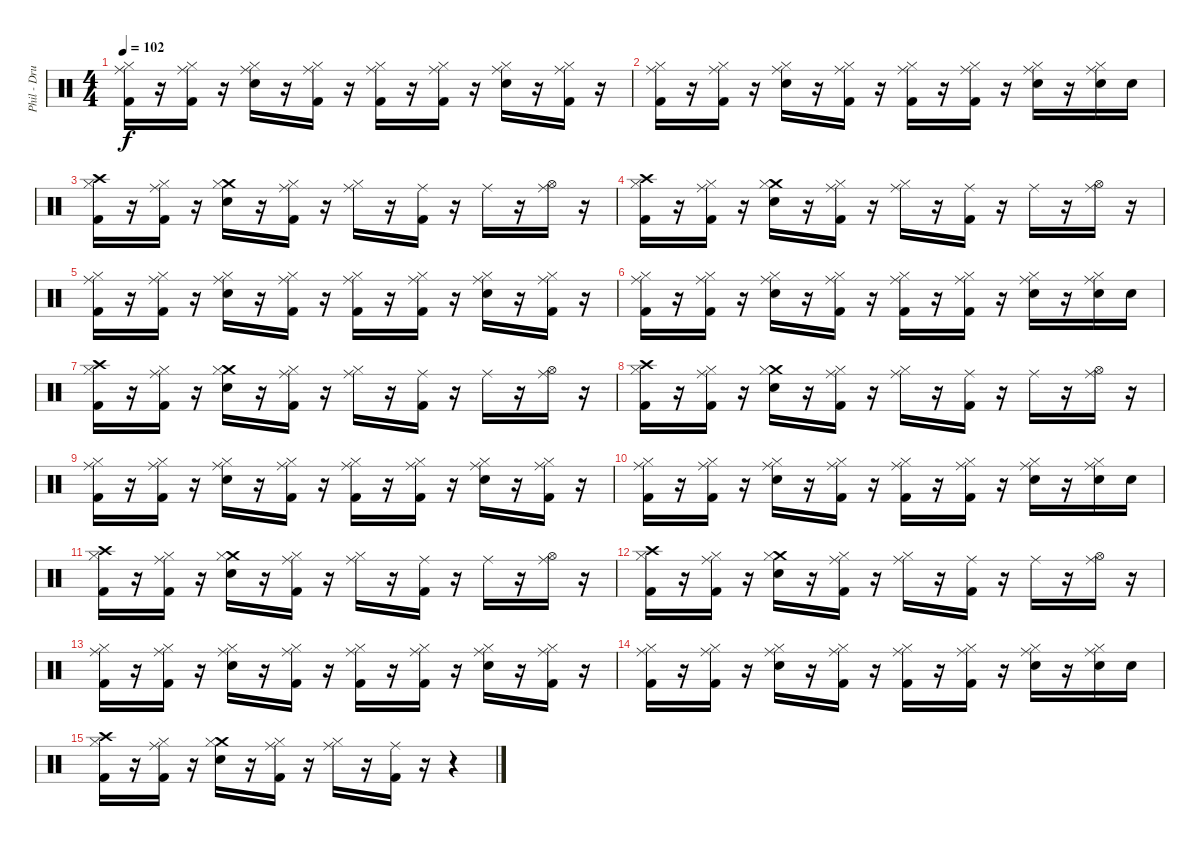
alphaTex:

\track ("Phil - Drums" "Phil - Dru") {instrument percussion}
\staff {score}
\articulation defaults
\ts (4 4)
\tempo 102
\clef neutral
\ks c
("Ride (middle)" "Kick (hit) 2" "Hi-Hat (closed)").16{dy f} r.16 ("Ride (middle)" "Kick (hit) 2" "Hi-Hat (closed)").16 r.16 ("Ride (middle)" "Electric Snare (hit)" "Hi-Hat (closed)").16 r.16 ("Ride (middle)" "Kick (hit) 2" "Hi-Hat (closed)").16 r.16 ("Ride (middle)" "Kick (hit) 2" "Hi-Hat (closed)").16 r.16 ("Ride (middle)" "Kick (hit) 2" "Hi-Hat (closed)").16 r.16 ("Ride (middle)" "Electric Snare (hit)" "Hi-Hat (closed)").16 r.16 ("Ride (middle)" "Kick (hit) 2" "Hi-Hat (closed)").16 r.16 |
("Ride (middle)" "Kick (hit) 2" "Hi-Hat (closed)").16 r.16 ("Ride (middle)" "Kick (hit) 2" "Hi-Hat (closed)").16 r.16 ("Ride (middle)" "Electric Snare (hit)" "Hi-Hat (closed)").16 r.16 ("Ride (middle)" "Kick (hit) 2" "Hi-Hat (closed)").16 r.16 ("Ride (middle)" "Kick (hit) 2" "Hi-Hat (closed)").16 r.16 ("Ride (middle)" "Kick (hit) 2" "Hi-Hat (closed)").16 r.16 ("Ride (middle)" "Electric Snare (hit)" "Hi-Hat (closed)").16 r.16 ("Ride (middle)" "Electric Snare (hit)" "Hi-Hat (closed)").16 "Electric Snare (hit)".16 |
("Crash high (hit)" "Kick (hit) 2" "Hi-Hat (closed)").16 r.16 ("Ride (middle)" "Kick (hit) 2" "Hi-Hat (closed)").16 r.16 ("Crash medium (hit)" "Electric Snare (hit)" "Hi-Hat (closed)").16 r.16 ("Ride (middle)" "Kick (hit) 2" "Hi-Hat (closed)").16 r.16 ("Ride (middle)" "Hi-Hat (closed)").16 r.16 ("Ride (middle)" "Kick (hit) 2").16 r.16 "Ride (middle)".16 r.16 ("Ride (middle)" "Hi-Hat (open)").16 r.16 |
("Crash high (hit)" "Kick (hit) 2" "Hi-Hat (closed)").16 r.16 ("Ride (middle)" "Kick (hit) 2" "Hi-Hat (closed)").16 r.16 ("Crash medium (hit)" "Electric Snare (hit)" "Hi-Hat (closed)").16 r.16 ("Ride (middle)" "Kick (hit) 2" "Hi-Hat (closed)").16 r.16 ("Ride (middle)" "Hi-Hat (closed)").16 r.16 ("Ride (middle)" "Kick (hit) 2").16 r.16 "Ride (middle)".16 r.16 ("Ride (middle)" "Hi-Hat (open)").16 r.16 |
("Ride (middle)" "Kick (hit) 2" "Hi-Hat (closed)").16 r.16 ("Ride (middle)" "Kick (hit) 2" "Hi-Hat (closed)").16 r.16 ("Ride (middle)" "Electric Snare (hit)" "Hi-Hat (closed)").16 r.16 ("Ride (middle)" "Kick (hit) 2" "Hi-Hat (closed)").16 r.16 ("Ride (middle)" "Kick (hit) 2" "Hi-Hat (closed)").16 r.16 ("Ride (middle)" "Kick (hit) 2" "Hi-Hat (closed)").16 r.16 ("Ride (middle)" "Electric Snare (hit)" "Hi-Hat (closed)").16 r.16 ("Ride (middle)" "Kick (hit) 2" "Hi-Hat (closed)").16 r.16 |
("Ride (middle)" "Kick (hit) 2" "Hi-Hat (closed)").16 r.16 ("Ride (middle)" "Kick (hit) 2" "Hi-Hat (closed)").16 r.16 ("Ride (middle)" "Electric Snare (hit)" "Hi-Hat (closed)").16 r.16 ("Ride (middle)" "Kick (hit) 2" "Hi-Hat (closed)").16 r.16 ("Ride (middle)" "Kick (hit) 2" "Hi-Hat (closed)").16 r.16 ("Ride (middle)" "Kick (hit) 2" "Hi-Hat (closed)").16 r.16 ("Ride (middle)" "Electric Snare (hit)" "Hi-Hat (closed)").16 r.16 ("Ride (middle)" "Electric Snare (hit)" "Hi-Hat (closed)").16 "Electric Snare (hit)".16 |
("Crash high (hit)" "Kick (hit) 2" "Hi-Hat (closed)").16 r.16 ("Ride (middle)" "Kick (hit) 2" "Hi-Hat (closed)").16 r.16 ("Crash medium (hit)" "Electric Snare (hit)" "Hi-Hat (closed)").16 r.16 ("Ride (middle)" "Kick (hit) 2" "Hi-Hat (closed)").16 r.16 ("Ride (middle)" "Hi-Hat (closed)").16 r.16 ("Ride (middle)" "Kick (hit) 2").16 r.16 "Ride (middle)".16 r.16 ("Ride (middle)" "Hi-Hat (open)").16 r.16 |
("Crash high (hit)" "Kick (hit) 2" "Hi-Hat (closed)").16 r.16 ("Ride (middle)" "Kick (hit) 2" "Hi-Hat (closed)").16 r.16 ("Crash medium (hit)" "Electric Snare (hit)" "Hi-Hat (closed)").16 r.16 ("Ride (middle)" "Kick (hit) 2" "Hi-Hat (closed)").16 r.16 ("Ride (middle)" "Hi-Hat (closed)").16 r.16 ("Ride (middle)" "Kick (hit) 2").16 r.16 "Ride (middle)".16 r.16 ("Ride (middle)" "Hi-Hat (open)").16 r.16 |
("Ride (middle)" "Kick (hit) 2" "Hi-Hat (closed)").16 r.16 ("Ride (middle)" "Kick (hit) 2" "Hi-Hat (closed)").16 r.16 ("Ride (middle)" "Electric Snare (hit)" "Hi-Hat (closed)").16 r.16 ("Ride (middle)" "Kick (hit) 2" "Hi-Hat (closed)").16 r.16 ("Ride (middle)" "Kick (hit) 2" "Hi-Hat (closed)").16 r.16 ("Ride (middle)" "Kick (hit) 2" "Hi-Hat (closed)").16 r.16 ("Ride (middle)" "Electric Snare (hit)" "Hi-Hat (closed)").16 r.16 ("Ride (middle)" "Kick (hit) 2" "Hi-Hat (closed)").16 r.16 |
("Ride (middle)" "Kick (hit) 2" "Hi-Hat (closed)").16 r.16 ("Ride (middle)" "Kick (hit) 2" "Hi-Hat (closed)").16 r.16 ("Ride (middle)" "Electric Snare (hit)" "Hi-Hat (closed)").16 r.16 ("Ride (middle)" "Kick (hit) 2" "Hi-Hat (closed)").16 r.16 ("Ride (middle)" "Kick (hit) 2" "Hi-Hat (closed)").16 r.16 ("Ride (middle)" "Kick (hit) 2" "Hi-Hat (closed)").16 r.16 ("Ride (middle)" "Electric Snare (hit)" "Hi-Hat (closed)").16 r.16 ("Ride (middle)" "Electric Snare (hit)" "Hi-Hat (closed)").16 "Electric Snare (hit)".16 |
("Crash high (hit)" "Kick (hit) 2" "Hi-Hat (closed)").16 r.16 ("Ride (middle)" "Kick (hit) 2" "Hi-Hat (closed)").16 r.16 ("Crash medium (hit)" "Electric Snare (hit)" "Hi-Hat (closed)").16 r.16 ("Ride (middle)" "Kick (hit) 2" "Hi-Hat (closed)").16 r.16 ("Ride (middle)" "Hi-Hat (closed)").16 r.16 ("Ride (middle)" "Kick (hit) 2").16 r.16 "Ride (middle)".16 r.16 ("Ride (middle)" "Hi-Hat (open)").16 r.16 |
("Crash high (hit)" "Kick (hit) 2" "Hi-Hat (closed)").16 r.16 ("Ride (middle)" "Kick (hit) 2" "Hi-Hat (closed)").16 r.16 ("Crash medium (hit)" "Electric Snare (hit)" "Hi-Hat (closed)").16 r.16 ("Ride (middle)" "Kick (hit) 2" "Hi-Hat (closed)").16 r.16 ("Ride (middle)" "Hi-Hat (closed)").16 r.16 ("Ride (middle)" "Kick (hit) 2").16 r.16 "Ride (middle)".16 r.16 ("Ride (middle)" "Hi-Hat (open)").16 r.16 |
("Ride (middle)" "Kick (hit) 2" "Hi-Hat (closed)").16 r.16 ("Ride (middle)" "Kick (hit) 2" "Hi-Hat (closed)").16 r.16 ("Ride (middle)" "Electric Snare (hit)" "Hi-Hat (closed)").16 r.16 ("Ride (middle)" "Kick (hit) 2" "Hi-Hat (closed)").16 r.16 ("Ride (middle)" "Kick (hit) 2" "Hi-Hat (closed)").16 r.16 ("Ride (middle)" "Kick (hit) 2" "Hi-Hat (closed)").16 r.16 ("Ride (middle)" "Electric Snare (hit)" "Hi-Hat (closed)").16 r.16 ("Ride (middle)" "Kick (hit) 2" "Hi-Hat (closed)").16 r.16 |
("Ride (middle)" "Kick (hit) 2" "Hi-Hat (closed)").16 r.16 ("Ride (middle)" "Kick (hit) 2" "Hi-Hat (closed)").16 r.16 ("Ride (middle)" "Electric Snare (hit)" "Hi-Hat (closed)").16 r.16 ("Ride (middle)" "Kick (hit) 2" "Hi-Hat (closed)").16 r.16 ("Ride (middle)" "Kick (hit) 2" "Hi-Hat (closed)").16 r.16 ("Ride (middle)" "Kick (hit) 2" "Hi-Hat (closed)").16 r.16 ("Ride (middle)" "Electric Snare (hit)" "Hi-Hat (closed)").16 r.16 ("Ride (middle)" "Electric Snare (hit)" "Hi-Hat (closed)").16 "Electric Snare (hit)".16 |
("Crash high (hit)" "Kick (hit) 2" "Hi-Hat (closed)").16 r.16 ("Ride (middle)" "Kick (hit) 2" "Hi-Hat (closed)").16 r.16 ("Crash medium (hit)" "Electric Snare (hit)" "Hi-Hat (closed)").16 r.16 ("Ride (middle)" "Kick (hit) 2" "Hi-Hat (closed)").16 r.16 ("Ride (middle)" "Hi-Hat (closed)").16 r.16 ("Ride (middle)" "Kick (hit) 2").16 r.16 r.4
